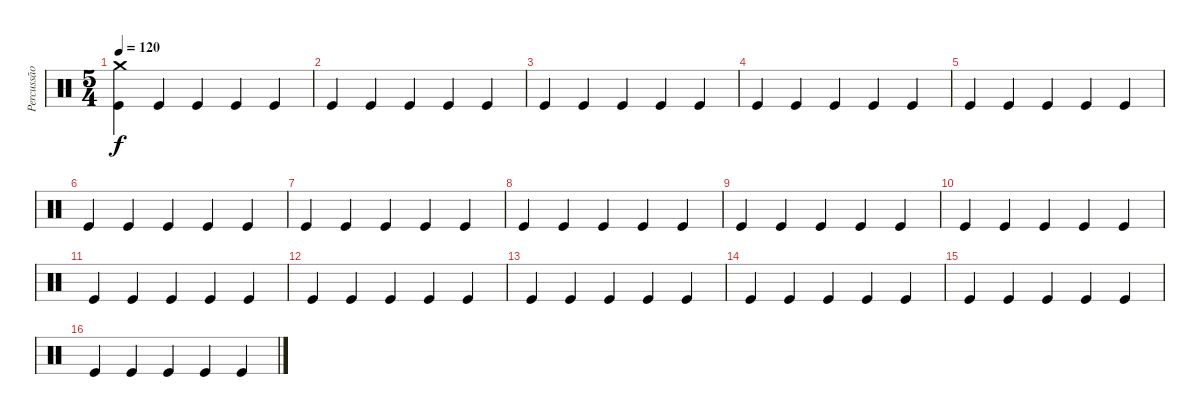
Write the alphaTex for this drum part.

\track ("Percussão" "Percussão") {instrument percussion}
\staff {score}
\articulation defaults
\ts (5 4)
\tempo 120
\clef neutral
\ks c
("Crash medium (hit)" "Kick (hit)").4{dy f} "Kick (hit)".4 "Kick (hit)".4 "Kick (hit)".4 "Kick (hit)".4 |
"Kick (hit)".4 "Kick (hit)".4 "Kick (hit)".4 "Kick (hit)".4 "Kick (hit)".4 |
"Kick (hit)".4 "Kick (hit)".4 "Kick (hit)".4 "Kick (hit)".4 "Kick (hit)".4 |
"Kick (hit)".4 "Kick (hit)".4 "Kick (hit)".4 "Kick (hit)".4 "Kick (hit)".4 |
"Kick (hit)".4 "Kick (hit)".4 "Kick (hit)".4 "Kick (hit)".4 "Kick (hit)".4 |
"Kick (hit)".4 "Kick (hit)".4 "Kick (hit)".4 "Kick (hit)".4 "Kick (hit)".4 |
"Kick (hit)".4 "Kick (hit)".4 "Kick (hit)".4 "Kick (hit)".4 "Kick (hit)".4 |
"Kick (hit)".4 "Kick (hit)".4 "Kick (hit)".4 "Kick (hit)".4 "Kick (hit)".4 |
"Kick (hit)".4 "Kick (hit)".4 "Kick (hit)".4 "Kick (hit)".4 "Kick (hit)".4 |
"Kick (hit)".4 "Kick (hit)".4 "Kick (hit)".4 "Kick (hit)".4 "Kick (hit)".4 |
"Kick (hit)".4 "Kick (hit)".4 "Kick (hit)".4 "Kick (hit)".4 "Kick (hit)".4 |
"Kick (hit)".4 "Kick (hit)".4 "Kick (hit)".4 "Kick (hit)".4 "Kick (hit)".4 |
"Kick (hit)".4 "Kick (hit)".4 "Kick (hit)".4 "Kick (hit)".4 "Kick (hit)".4 |
"Kick (hit)".4 "Kick (hit)".4 "Kick (hit)".4 "Kick (hit)".4 "Kick (hit)".4 |
"Kick (hit)".4 "Kick (hit)".4 "Kick (hit)".4 "Kick (hit)".4 "Kick (hit)".4 |
"Kick (hit)".4 "Kick (hit)".4 "Kick (hit)".4 "Kick (hit)".4 "Kick (hit)".4
